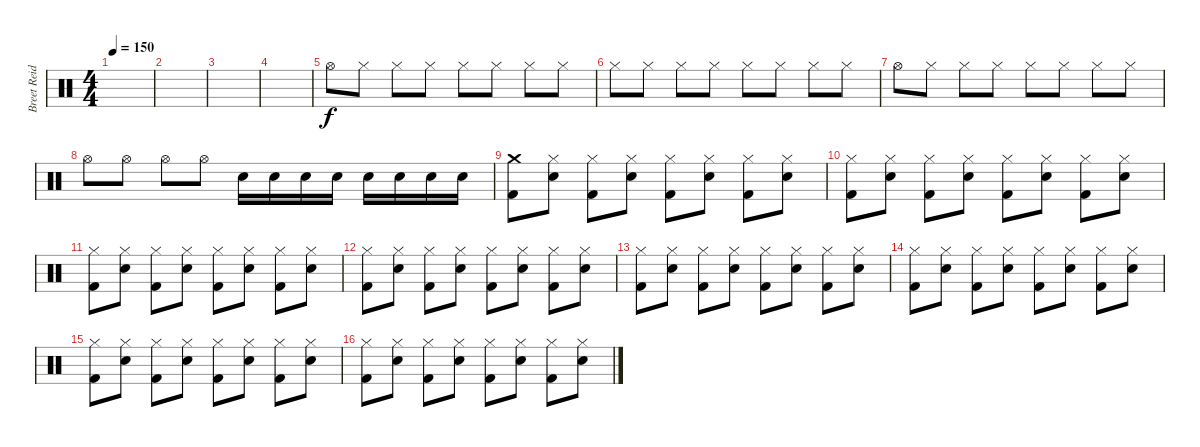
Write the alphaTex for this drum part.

\track ("Breet Reid" "Breet Reid") {instrument percussion}
\staff {score}
\articulation defaults
\ts (4 4)
\tempo 150
\clef neutral
\ks c
|
|
|
|
"Hi-Hat (open)".8 "Hi-Hat (closed)".8 "Hi-Hat (closed)".8 "Hi-Hat (closed)".8 "Hi-Hat (closed)".8 "Hi-Hat (closed)".8 "Hi-Hat (closed)".8 "Hi-Hat (closed)".8 |
"Hi-Hat (closed)".8 "Hi-Hat (closed)".8 "Hi-Hat (closed)".8 "Hi-Hat (closed)".8 "Hi-Hat (closed)".8 "Hi-Hat (closed)".8 "Hi-Hat (closed)".8 "Hi-Hat (closed)".8 |
"Hi-Hat (open)".8 "Hi-Hat (closed)".8 "Hi-Hat (closed)".8 "Hi-Hat (closed)".8 "Hi-Hat (closed)".8 "Hi-Hat (closed)".8 "Hi-Hat (closed)".8 "Hi-Hat (closed)".8 |
"Hi-Hat (open)".8 "Hi-Hat (open)".8 "Hi-Hat (open)".8 "Hi-Hat (open)".8 "Snare (hit) 2".16 "Snare (hit) 2".16 "Snare (hit) 2".16 "Snare (hit) 2".16 "Snare (hit) 2".16 "Snare (hit) 2".16 "Snare (hit) 2".16 "Snare (hit) 2".16 |
("Crash medium (hit)" "Kick (hit) 2").8 ("Hi-Hat (closed)" "Snare (hit) 2").8 ("Hi-Hat (closed)" "Kick (hit) 2").8 ("Hi-Hat (closed)" "Snare (hit) 2").8 ("Hi-Hat (closed)" "Kick (hit) 2").8 ("Hi-Hat (closed)" "Snare (hit) 2").8 ("Hi-Hat (closed)" "Kick (hit) 2").8 ("Hi-Hat (closed)" "Snare (hit) 2").8 |
("Hi-Hat (closed)" "Kick (hit) 2").8 ("Hi-Hat (closed)" "Snare (hit) 2").8 ("Hi-Hat (closed)" "Kick (hit) 2").8 ("Hi-Hat (closed)" "Snare (hit) 2").8 ("Hi-Hat (closed)" "Kick (hit) 2").8 ("Hi-Hat (closed)" "Snare (hit) 2").8 ("Hi-Hat (closed)" "Kick (hit) 2").8 ("Hi-Hat (closed)" "Snare (hit) 2").8 |
("Hi-Hat (closed)" "Kick (hit) 2").8 ("Hi-Hat (closed)" "Snare (hit) 2").8 ("Hi-Hat (closed)" "Kick (hit) 2").8 ("Hi-Hat (closed)" "Snare (hit) 2").8 ("Hi-Hat (closed)" "Kick (hit) 2").8 ("Hi-Hat (closed)" "Snare (hit) 2").8 ("Hi-Hat (closed)" "Kick (hit) 2").8 ("Hi-Hat (closed)" "Snare (hit) 2").8 |
("Hi-Hat (closed)" "Kick (hit) 2").8 ("Hi-Hat (closed)" "Snare (hit) 2").8 ("Hi-Hat (closed)" "Kick (hit) 2").8 ("Hi-Hat (closed)" "Snare (hit) 2").8 ("Hi-Hat (closed)" "Kick (hit) 2").8 ("Hi-Hat (closed)" "Snare (hit) 2").8 ("Hi-Hat (closed)" "Kick (hit) 2").8 ("Hi-Hat (closed)" "Snare (hit) 2").8 |
("Hi-Hat (closed)" "Kick (hit) 2").8 ("Hi-Hat (closed)" "Snare (hit) 2").8 ("Hi-Hat (closed)" "Kick (hit) 2").8 ("Hi-Hat (closed)" "Snare (hit) 2").8 ("Hi-Hat (closed)" "Kick (hit) 2").8 ("Hi-Hat (closed)" "Snare (hit) 2").8 ("Hi-Hat (closed)" "Kick (hit) 2").8 ("Hi-Hat (closed)" "Snare (hit) 2").8 |
("Hi-Hat (closed)" "Kick (hit) 2").8 ("Hi-Hat (closed)" "Snare (hit) 2").8 ("Hi-Hat (closed)" "Kick (hit) 2").8 ("Hi-Hat (closed)" "Snare (hit) 2").8 ("Hi-Hat (closed)" "Kick (hit) 2").8 ("Hi-Hat (closed)" "Snare (hit) 2").8 ("Hi-Hat (closed)" "Kick (hit) 2").8 ("Hi-Hat (closed)" "Snare (hit) 2").8 |
("Hi-Hat (closed)" "Kick (hit) 2").8 ("Hi-Hat (closed)" "Snare (hit) 2").8 ("Hi-Hat (closed)" "Kick (hit) 2").8 ("Hi-Hat (closed)" "Snare (hit) 2").8 ("Hi-Hat (closed)" "Kick (hit) 2").8 ("Hi-Hat (closed)" "Snare (hit) 2").8 ("Hi-Hat (closed)" "Kick (hit) 2").8 ("Hi-Hat (closed)" "Snare (hit) 2").8 |
("Hi-Hat (closed)" "Kick (hit) 2").8 ("Hi-Hat (closed)" "Snare (hit) 2").8 ("Hi-Hat (closed)" "Kick (hit) 2").8 ("Hi-Hat (closed)" "Snare (hit) 2").8 ("Hi-Hat (closed)" "Kick (hit) 2").8 ("Hi-Hat (closed)" "Snare (hit) 2").8 ("Hi-Hat (closed)" "Kick (hit) 2").8 ("Hi-Hat (closed)" "Snare (hit) 2").8
